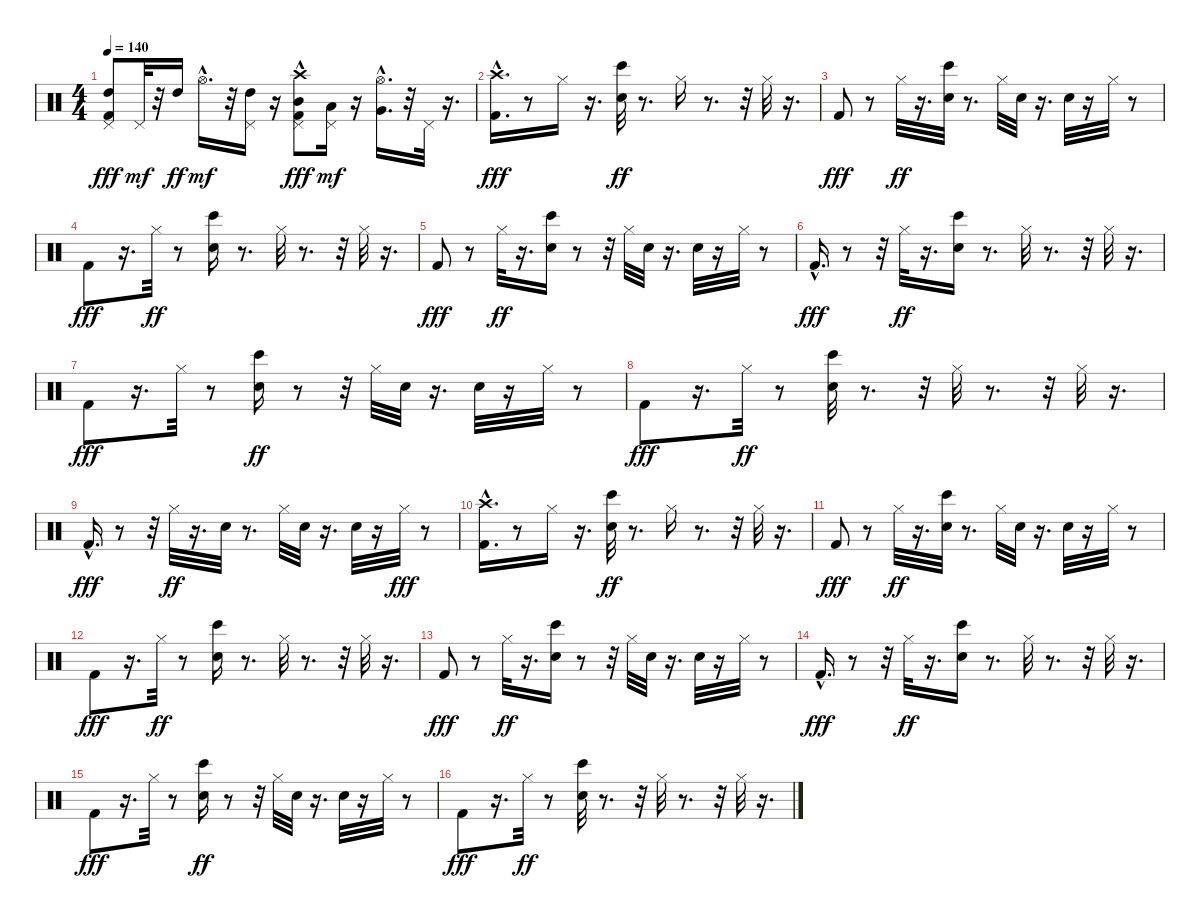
\track "" {instrument percussion}
\staff {score}
\articulation defaults
\ts (4 4)
\tempo 140
\clef neutral
\ks c
("High Tom (hit)" "Pedal Hi-Hat (hit)" "Kick (hit) 2").8{dy fff} "Pedal Hi-Hat (hit)".32{dy mf} r.32 "High Tom (hit)".16{dy ff} "Hi-Hat (open)"{hac}.16{d dy mf} r.32 ("High Tom (hit)" "Pedal Hi-Hat (hit)").16 r.16 ("Mid Tom (hit)" "Pedal Hi-Hat (hit)" "Kick (hit) 2"{hac} "Crash high (hit)").8{dy fff} ("Low Tom (hit)" "Pedal Hi-Hat (hit)").16{dy mf} r.16 ("Very Low Tom (hit)"{hac} "Hi-Hat (open)"{hac}).16{d} r.32 "Pedal Hi-Hat (hit)".32 r.16{d} |
("Kick (hit) 2"{hac} "Crash high (hit)").16{d dy fff} r.8 "Hi-Hat (closed)".16 r.16{d} ("Bongo High (hit)" "Electric Snare (hit)").32{dy ff} r.8{d} "Hi-Hat (closed)".16 r.8{d} r.32 "Hi-Hat (closed)".32 r.16{d} |
"Kick (hit) 2".8{dy fff} r.8 "Hi-Hat (closed)".32{dy ff} r.16{d} ("Bongo High (hit)" "Electric Snare (hit)").32 r.8{d} "Hi-Hat (closed)".32 "Electric Snare (hit)".32 r.16{d} "Electric Snare (hit)".32 r.16 "Hi-Hat (closed)".32 r.8 |
"Kick (hit) 2".8{dy fff} r.16{d} "Hi-Hat (closed)".32{dy ff} r.8 ("Bongo High (hit)" "Electric Snare (hit)").16 r.8{d} "Hi-Hat (closed)".32 r.8{d} r.32 "Hi-Hat (closed)".32 r.16{d} |
"Kick (hit) 2".8{dy fff} r.8 "Hi-Hat (closed)".32{dy ff} r.16{d} ("Bongo High (hit)" "Electric Snare (hit)").16 r.8 r.32 "Hi-Hat (closed)".32 "Electric Snare (hit)".32 r.16{d} "Electric Snare (hit)".32 r.16 "Hi-Hat (closed)".32 r.8 |
"Kick (hit) 2"{hac}.16{d dy fff} r.8 r.32 "Hi-Hat (closed)".32{dy ff} r.16{d} ("Bongo High (hit)" "Electric Snare (hit)").16 r.8{d} "Hi-Hat (closed)".32 r.8{d} r.32 "Hi-Hat (closed)".32 r.16{d} |
"Kick (hit) 2".8{dy fff} r.16{d} "Hi-Hat (closed)".32 r.8 ("Electric Snare (hit)" "Bongo High (hit)").16{dy ff} r.8 r.32 "Hi-Hat (closed)".32 "Electric Snare (hit)".32 r.16{d} "Electric Snare (hit)".32 r.16 "Hi-Hat (closed)".32 r.8 |
"Kick (hit) 2".8{dy fff} r.16{d} "Hi-Hat (closed)".32{dy ff} r.8 ("Bongo High (hit)" "Electric Snare (hit)").32 r.8{d} r.32 "Hi-Hat (closed)".32 r.8{d} r.32 "Hi-Hat (closed)".32 r.16{d} |
"Kick (hit) 2"{hac}.16{d dy fff} r.8 r.32 "Hi-Hat (closed)".32{dy ff} r.16{d} "Electric Snare (hit)".32 r.8{d} "Hi-Hat (closed)".32 "Electric Snare (hit)".32 r.16{d} "Electric Snare (hit)".32 r.16 "Hi-Hat (closed)".32{dy fff} r.8 |
("Crash high (hit)" "Kick (hit) 2"{hac}).16{d} r.8 "Hi-Hat (closed)".16 r.16{d} ("Bongo High (hit)" "Electric Snare (hit)").32{dy ff} r.8{d} "Hi-Hat (closed)".16 r.8{d} r.32 "Hi-Hat (closed)".32 r.16{d} |
"Kick (hit) 2".8{dy fff} r.8 "Hi-Hat (closed)".32{dy ff} r.16{d} ("Bongo High (hit)" "Electric Snare (hit)").32 r.8{d} "Hi-Hat (closed)".32 "Electric Snare (hit)".32 r.16{d} "Electric Snare (hit)".32 r.16 "Hi-Hat (closed)".32 r.8 |
"Kick (hit) 2".8{dy fff} r.16{d} "Hi-Hat (closed)".32{dy ff} r.8 ("Bongo High (hit)" "Electric Snare (hit)").16 r.8{d} "Hi-Hat (closed)".32 r.8{d} r.32 "Hi-Hat (closed)".32 r.16{d} |
"Kick (hit) 2".8{dy fff} r.8 "Hi-Hat (closed)".32{dy ff} r.16{d} ("Bongo High (hit)" "Electric Snare (hit)").16 r.8 r.32 "Hi-Hat (closed)".32 "Electric Snare (hit)".32 r.16{d} "Electric Snare (hit)".32 r.16 "Hi-Hat (closed)".32 r.8 |
"Kick (hit) 2"{hac}.16{d dy fff} r.8 r.32 "Hi-Hat (closed)".32{dy ff} r.16{d} ("Bongo High (hit)" "Electric Snare (hit)").16 r.8{d} "Hi-Hat (closed)".32 r.8{d} r.32 "Hi-Hat (closed)".32 r.16{d} |
"Kick (hit) 2".8{dy fff} r.16{d} "Hi-Hat (closed)".32 r.8 ("Electric Snare (hit)" "Bongo High (hit)").16{dy ff} r.8 r.32 "Hi-Hat (closed)".32 "Electric Snare (hit)".32 r.16{d} "Electric Snare (hit)".32 r.16 "Hi-Hat (closed)".32 r.8 |
"Kick (hit) 2".8{dy fff} r.16{d} "Hi-Hat (closed)".32{dy ff} r.8 ("Bongo High (hit)" "Electric Snare (hit)").32 r.8{d} r.32 "Hi-Hat (closed)".32 r.8{d} r.32 "Hi-Hat (closed)".32 r.16{d}
